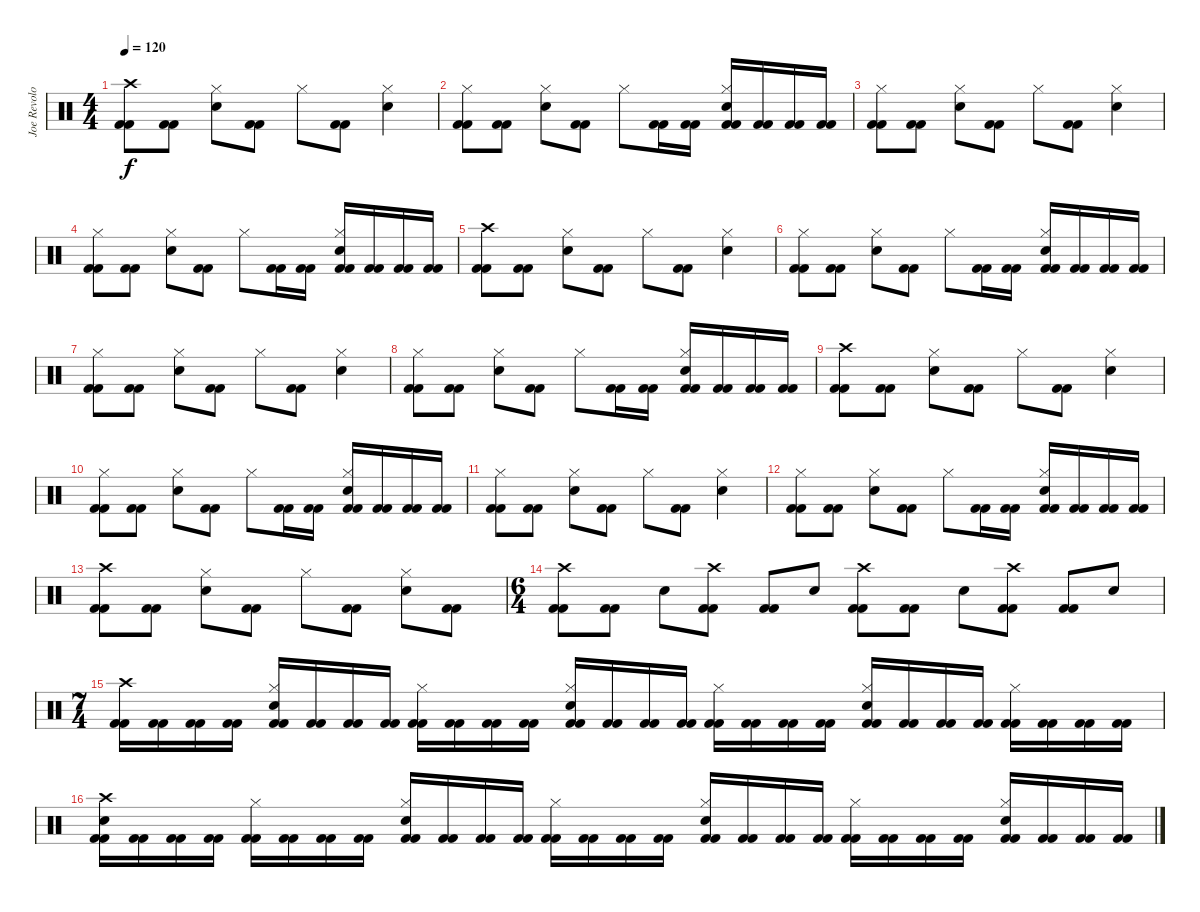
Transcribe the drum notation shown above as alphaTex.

\track ("Joe Revolo" "Joe Revolo") {instrument percussion}
\staff {score}
\articulation defaults
\ts (4 4)
\tempo 120
\clef neutral
\ks c
("Crash high (hit)" "Kick (hit) 2" "Kick (hit) 2").8{dy f} ("Kick (hit) 2" "Kick (hit) 2").8 ("Hi-Hat (closed)" "Electric Snare (hit)").8 ("Kick (hit) 2" "Kick (hit) 2").8 "Hi-Hat (closed)".8 ("Kick (hit) 2" "Kick (hit) 2").8 ("Hi-Hat (closed)" "Electric Snare (hit)").4 |
("Hi-Hat (closed)" "Kick (hit) 2" "Kick (hit) 2").8 ("Kick (hit) 2" "Kick (hit) 2").8 ("Hi-Hat (closed)" "Electric Snare (hit)").8 ("Kick (hit) 2" "Kick (hit) 2").8 "Hi-Hat (closed)".8 ("Kick (hit) 2" "Kick (hit) 2").16 ("Kick (hit) 2" "Kick (hit) 2").16 ("Hi-Hat (closed)" "Electric Snare (hit)" "Kick (hit) 2" "Kick (hit) 2").16 ("Kick (hit) 2" "Kick (hit) 2").16 ("Kick (hit) 2" "Kick (hit) 2").16 ("Kick (hit) 2" "Kick (hit) 2").16 |
("Hi-Hat (closed)" "Kick (hit) 2" "Kick (hit) 2").8 ("Kick (hit) 2" "Kick (hit) 2").8 ("Hi-Hat (closed)" "Electric Snare (hit)").8 ("Kick (hit) 2" "Kick (hit) 2").8 "Hi-Hat (closed)".8 ("Kick (hit) 2" "Kick (hit) 2").8 ("Hi-Hat (closed)" "Electric Snare (hit)").4 |
("Hi-Hat (closed)" "Kick (hit) 2" "Kick (hit) 2").8 ("Kick (hit) 2" "Kick (hit) 2").8 ("Hi-Hat (closed)" "Electric Snare (hit)").8 ("Kick (hit) 2" "Kick (hit) 2").8 "Hi-Hat (closed)".8 ("Kick (hit) 2" "Kick (hit) 2").16 ("Kick (hit) 2" "Kick (hit) 2").16 ("Hi-Hat (closed)" "Electric Snare (hit)" "Kick (hit) 2" "Kick (hit) 2").16 ("Kick (hit) 2" "Kick (hit) 2").16 ("Kick (hit) 2" "Kick (hit) 2").16 ("Kick (hit) 2" "Kick (hit) 2").16 |
("Crash high (hit)" "Kick (hit) 2" "Kick (hit) 2").8 ("Kick (hit) 2" "Kick (hit) 2").8 ("Hi-Hat (closed)" "Electric Snare (hit)").8 ("Kick (hit) 2" "Kick (hit) 2").8 "Hi-Hat (closed)".8 ("Kick (hit) 2" "Kick (hit) 2").8 ("Hi-Hat (closed)" "Electric Snare (hit)").4 |
("Hi-Hat (closed)" "Kick (hit) 2" "Kick (hit) 2").8 ("Kick (hit) 2" "Kick (hit) 2").8 ("Hi-Hat (closed)" "Electric Snare (hit)").8 ("Kick (hit) 2" "Kick (hit) 2").8 "Hi-Hat (closed)".8 ("Kick (hit) 2" "Kick (hit) 2").16 ("Kick (hit) 2" "Kick (hit) 2").16 ("Hi-Hat (closed)" "Electric Snare (hit)" "Kick (hit) 2" "Kick (hit) 2").16 ("Kick (hit) 2" "Kick (hit) 2").16 ("Kick (hit) 2" "Kick (hit) 2").16 ("Kick (hit) 2" "Kick (hit) 2").16 |
("Hi-Hat (closed)" "Kick (hit) 2" "Kick (hit) 2").8 ("Kick (hit) 2" "Kick (hit) 2").8 ("Hi-Hat (closed)" "Electric Snare (hit)").8 ("Kick (hit) 2" "Kick (hit) 2").8 "Hi-Hat (closed)".8 ("Kick (hit) 2" "Kick (hit) 2").8 ("Hi-Hat (closed)" "Electric Snare (hit)").4 |
("Hi-Hat (closed)" "Kick (hit) 2" "Kick (hit) 2").8 ("Kick (hit) 2" "Kick (hit) 2").8 ("Hi-Hat (closed)" "Electric Snare (hit)").8 ("Kick (hit) 2" "Kick (hit) 2").8 "Hi-Hat (closed)".8 ("Kick (hit) 2" "Kick (hit) 2").16 ("Kick (hit) 2" "Kick (hit) 2").16 ("Hi-Hat (closed)" "Electric Snare (hit)" "Kick (hit) 2" "Kick (hit) 2").16 ("Kick (hit) 2" "Kick (hit) 2").16 ("Kick (hit) 2" "Kick (hit) 2").16 ("Kick (hit) 2" "Kick (hit) 2").16 |
("Crash high (hit)" "Kick (hit) 2" "Kick (hit) 2").8 ("Kick (hit) 2" "Kick (hit) 2").8 ("Hi-Hat (closed)" "Electric Snare (hit)").8 ("Kick (hit) 2" "Kick (hit) 2").8 "Hi-Hat (closed)".8 ("Kick (hit) 2" "Kick (hit) 2").8 ("Hi-Hat (closed)" "Electric Snare (hit)").4 |
("Hi-Hat (closed)" "Kick (hit) 2" "Kick (hit) 2").8 ("Kick (hit) 2" "Kick (hit) 2").8 ("Hi-Hat (closed)" "Electric Snare (hit)").8 ("Kick (hit) 2" "Kick (hit) 2").8 "Hi-Hat (closed)".8 ("Kick (hit) 2" "Kick (hit) 2").16 ("Kick (hit) 2" "Kick (hit) 2").16 ("Hi-Hat (closed)" "Electric Snare (hit)" "Kick (hit) 2" "Kick (hit) 2").16 ("Kick (hit) 2" "Kick (hit) 2").16 ("Kick (hit) 2" "Kick (hit) 2").16 ("Kick (hit) 2" "Kick (hit) 2").16 |
("Hi-Hat (closed)" "Kick (hit) 2" "Kick (hit) 2").8 ("Kick (hit) 2" "Kick (hit) 2").8 ("Hi-Hat (closed)" "Electric Snare (hit)").8 ("Kick (hit) 2" "Kick (hit) 2").8 "Hi-Hat (closed)".8 ("Kick (hit) 2" "Kick (hit) 2").8 ("Hi-Hat (closed)" "Electric Snare (hit)").4 |
("Hi-Hat (closed)" "Kick (hit) 2" "Kick (hit) 2").8 ("Kick (hit) 2" "Kick (hit) 2").8 ("Hi-Hat (closed)" "Electric Snare (hit)").8 ("Kick (hit) 2" "Kick (hit) 2").8 "Hi-Hat (closed)".8 ("Kick (hit) 2" "Kick (hit) 2").16 ("Kick (hit) 2" "Kick (hit) 2").16 ("Hi-Hat (closed)" "Electric Snare (hit)" "Kick (hit) 2" "Kick (hit) 2").16 ("Kick (hit) 2" "Kick (hit) 2").16 ("Kick (hit) 2" "Kick (hit) 2").16 ("Kick (hit) 2" "Kick (hit) 2").16 |
("Crash high (hit)" "Kick (hit) 2" "Kick (hit) 2").8 ("Kick (hit) 2" "Kick (hit) 2").8 ("Hi-Hat (closed)" "Electric Snare (hit)").8 ("Kick (hit) 2" "Kick (hit) 2").8 "Hi-Hat (closed)".8 ("Kick (hit) 2" "Kick (hit) 2").8 ("Hi-Hat (closed)" "Electric Snare (hit)").8 ("Kick (hit) 2" "Kick (hit) 2").8 |
\ts (6 4)
("Crash high (hit)" "Kick (hit) 2" "Kick (hit) 2").8 ("Kick (hit) 2" "Kick (hit) 2").8 "Electric Snare (hit)".8 ("Crash high (hit)" "Kick (hit) 2" "Kick (hit) 2").8 ("Kick (hit) 2" "Kick (hit) 2").8 "Electric Snare (hit)".8 ("Crash high (hit)" "Kick (hit) 2" "Kick (hit) 2").8 ("Kick (hit) 2" "Kick (hit) 2").8 "Electric Snare (hit)".8 ("Crash high (hit)" "Kick (hit) 2" "Kick (hit) 2").8 ("Kick (hit) 2" "Kick (hit) 2").8 "Electric Snare (hit)".8 |
\ts (7 4)
("Crash high (hit)" "Kick (hit) 2" "Kick (hit) 2").16 ("Kick (hit) 2" "Kick (hit) 2").16 ("Kick (hit) 2" "Kick (hit) 2").16 ("Kick (hit) 2" "Kick (hit) 2").16 ("Hi-Hat (closed)" "Electric Snare (hit)" "Kick (hit) 2" "Kick (hit) 2").16 ("Kick (hit) 2" "Kick (hit) 2").16 ("Kick (hit) 2" "Kick (hit) 2").16 ("Kick (hit) 2" "Kick (hit) 2").16 ("Hi-Hat (closed)" "Kick (hit) 2" "Kick (hit) 2").16 ("Kick (hit) 2" "Kick (hit) 2").16 ("Kick (hit) 2" "Kick (hit) 2").16 ("Kick (hit) 2" "Kick (hit) 2").16 ("Hi-Hat (closed)" "Electric Snare (hit)" "Kick (hit) 2" "Kick (hit) 2").16 ("Kick (hit) 2" "Kick (hit) 2").16 ("Kick (hit) 2" "Kick (hit) 2").16 ("Kick (hit) 2" "Kick (hit) 2").16 ("Hi-Hat (closed)" "Kick (hit) 2" "Kick (hit) 2").16 ("Kick (hit) 2" "Kick (hit) 2").16 ("Kick (hit) 2" "Kick (hit) 2").16 ("Kick (hit) 2" "Kick (hit) 2").16 ("Hi-Hat (closed)" "Electric Snare (hit)" "Kick (hit) 2" "Kick (hit) 2").16 ("Kick (hit) 2" "Kick (hit) 2").16 ("Kick (hit) 2" "Kick (hit) 2").16 ("Kick (hit) 2" "Kick (hit) 2").16 ("Hi-Hat (closed)" "Kick (hit) 2" "Kick (hit) 2").16 ("Kick (hit) 2" "Kick (hit) 2").16 ("Kick (hit) 2" "Kick (hit) 2").16 ("Kick (hit) 2" "Kick (hit) 2").16 |
("Crash high (hit)" "Electric Snare (hit)" "Kick (hit) 2" "Kick (hit) 2").16 ("Kick (hit) 2" "Kick (hit) 2").16 ("Kick (hit) 2" "Kick (hit) 2").16 ("Kick (hit) 2" "Kick (hit) 2").16 ("Hi-Hat (closed)" "Kick (hit) 2" "Kick (hit) 2").16 ("Kick (hit) 2" "Kick (hit) 2").16 ("Kick (hit) 2" "Kick (hit) 2").16 ("Kick (hit) 2" "Kick (hit) 2").16 ("Hi-Hat (closed)" "Electric Snare (hit)" "Kick (hit) 2" "Kick (hit) 2").16 ("Kick (hit) 2" "Kick (hit) 2").16 ("Kick (hit) 2" "Kick (hit) 2").16 ("Kick (hit) 2" "Kick (hit) 2").16 ("Hi-Hat (closed)" "Kick (hit) 2" "Kick (hit) 2").16 ("Kick (hit) 2" "Kick (hit) 2").16 ("Kick (hit) 2" "Kick (hit) 2").16 ("Kick (hit) 2" "Kick (hit) 2").16 ("Hi-Hat (closed)" "Electric Snare (hit)" "Kick (hit) 2" "Kick (hit) 2").16 ("Kick (hit) 2" "Kick (hit) 2").16 ("Kick (hit) 2" "Kick (hit) 2").16 ("Kick (hit) 2" "Kick (hit) 2").16 ("Hi-Hat (closed)" "Kick (hit) 2" "Kick (hit) 2").16 ("Kick (hit) 2" "Kick (hit) 2").16 ("Kick (hit) 2" "Kick (hit) 2").16 ("Kick (hit) 2" "Kick (hit) 2").16 ("Hi-Hat (closed)" "Electric Snare (hit)" "Kick (hit) 2" "Kick (hit) 2").16 ("Kick (hit) 2" "Kick (hit) 2").16 ("Kick (hit) 2" "Kick (hit) 2").16 ("Kick (hit) 2" "Kick (hit) 2").16
